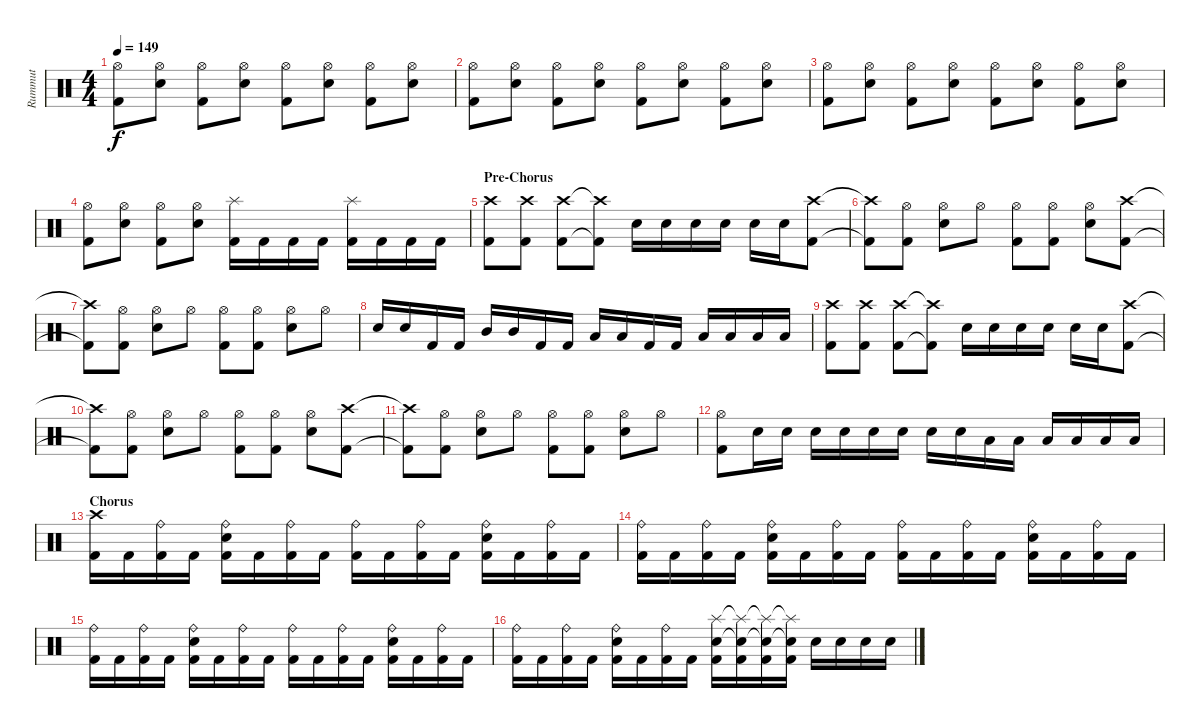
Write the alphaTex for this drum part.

\track ("Rummut" "Rummut") {instrument percussion}
\staff {score}
\articulation defaults
\ts (4 4)
\tempo 149
\clef neutral
\ks c
("Hi-Hat (open)" "Kick (hit) 2").8{dy f} ("Hi-Hat (open)" "Electric Snare (hit)").8 ("Hi-Hat (open)" "Kick (hit) 2").8 ("Hi-Hat (open)" "Electric Snare (hit)").8 ("Hi-Hat (open)" "Kick (hit) 2").8 ("Hi-Hat (open)" "Electric Snare (hit)").8 ("Hi-Hat (open)" "Kick (hit) 2").8 ("Hi-Hat (open)" "Electric Snare (hit)").8 |
("Hi-Hat (open)" "Kick (hit) 2").8 ("Hi-Hat (open)" "Electric Snare (hit)").8 ("Hi-Hat (open)" "Kick (hit) 2").8 ("Hi-Hat (open)" "Electric Snare (hit)").8 ("Hi-Hat (open)" "Kick (hit) 2").8 ("Hi-Hat (open)" "Electric Snare (hit)").8 ("Hi-Hat (open)" "Kick (hit) 2").8 ("Hi-Hat (open)" "Electric Snare (hit)").8 |
("Hi-Hat (open)" "Kick (hit) 2").8 ("Hi-Hat (open)" "Electric Snare (hit)").8 ("Hi-Hat (open)" "Kick (hit) 2").8 ("Hi-Hat (open)" "Electric Snare (hit)").8 ("Hi-Hat (open)" "Kick (hit) 2").8 ("Hi-Hat (open)" "Electric Snare (hit)").8 ("Hi-Hat (open)" "Kick (hit) 2").8 ("Hi-Hat (open)" "Electric Snare (hit)").8 |
("Hi-Hat (open)" "Kick (hit) 2").8 ("Hi-Hat (open)" "Electric Snare (hit)").8 ("Hi-Hat (open)" "Kick (hit) 2").8 ("Hi-Hat (open)" "Electric Snare (hit)").8 ("Splash (hit)" "Kick (hit) 2").16 "Kick (hit) 2".16 "Kick (hit) 2".16 "Kick (hit) 2".16 ("Splash (hit)" "Kick (hit) 2").16 "Kick (hit) 2".16 "Kick (hit) 2".16 "Kick (hit) 2".16 |
\section ("" "Pre-Chorus")
("Crash high (hit)" "Kick (hit) 2").8 ("Crash high (hit)" "Kick (hit) 2").8 ("Crash high (hit)" "Kick (hit) 2").8 ("Crash high (hit)"{t} "Kick (hit) 2"{t}).8 "Electric Snare (hit)".16 "Electric Snare (hit)".16 "Electric Snare (hit)".16 "Electric Snare (hit)".16 "Electric Snare (hit)".16 "Electric Snare (hit)".16 ("Crash high (hit)" "Kick (hit) 2").8 |
("Crash high (hit)"{t} "Kick (hit) 2"{t}).8 ("Hi-Hat (open)" "Kick (hit) 2").8 ("Hi-Hat (open)" "Electric Snare (hit)").8 "Hi-Hat (open)".8 ("Hi-Hat (open)" "Kick (hit) 2").8 ("Hi-Hat (open)" "Kick (hit) 2").8 ("Hi-Hat (open)" "Electric Snare (hit)").8 ("Crash high (hit)" "Kick (hit) 2").8 |
("Crash high (hit)"{t} "Kick (hit) 2"{t}).8 ("Hi-Hat (open)" "Kick (hit) 2").8 ("Hi-Hat (open)" "Electric Snare (hit)").8 "Hi-Hat (open)".8 ("Hi-Hat (open)" "Kick (hit) 2").8 ("Hi-Hat (open)" "Kick (hit) 2").8 ("Hi-Hat (open)" "Electric Snare (hit)").8 "Hi-Hat (open)".8 |
"Electric Snare (hit)".16 "Electric Snare (hit)".16 "Kick (hit) 2".16 "Kick (hit) 2".16 "Mid Tom (hit)".16 "Mid Tom (hit)".16 "Kick (hit) 2".16 "Kick (hit) 2".16 "Low Tom (hit)".16 "Low Tom (hit)".16 "Kick (hit) 2".16 "Kick (hit) 2".16 "Low Floor Tom (hit)".16 "Low Floor Tom (hit)".16 "Low Floor Tom (hit)".16 "Low Floor Tom (hit)".16 |
("Crash high (hit)" "Kick (hit) 2").8 ("Crash high (hit)" "Kick (hit) 2").8 ("Crash high (hit)" "Kick (hit) 2").8 ("Crash high (hit)"{t} "Kick (hit) 2"{t}).8 "Electric Snare (hit)".16 "Electric Snare (hit)".16 "Electric Snare (hit)".16 "Electric Snare (hit)".16 "Electric Snare (hit)".16 "Electric Snare (hit)".16 ("Crash high (hit)" "Kick (hit) 2").8 |
("Crash high (hit)"{t} "Kick (hit) 2"{t}).8 ("Hi-Hat (open)" "Kick (hit) 2").8 ("Hi-Hat (open)" "Electric Snare (hit)").8 "Hi-Hat (open)".8 ("Hi-Hat (open)" "Kick (hit) 2").8 ("Hi-Hat (open)" "Kick (hit) 2").8 ("Hi-Hat (open)" "Electric Snare (hit)").8 ("Crash high (hit)" "Kick (hit) 2").8 |
("Crash high (hit)"{t} "Kick (hit) 2"{t}).8 ("Hi-Hat (open)" "Kick (hit) 2").8 ("Hi-Hat (open)" "Electric Snare (hit)").8 "Hi-Hat (open)".8 ("Hi-Hat (open)" "Kick (hit) 2").8 ("Hi-Hat (open)" "Kick (hit) 2").8 ("Hi-Hat (open)" "Electric Snare (hit)").8 "Hi-Hat (open)".8 |
("Hi-Hat (open)" "Kick (hit) 2").8 "Electric Snare (hit)".16 "Electric Snare (hit)".16 "Electric Snare (hit)".16 "Electric Snare (hit)".16 "Electric Snare (hit)".16 "Electric Snare (hit)".16 "Electric Snare (hit)".16 "Electric Snare (hit)".16 "Low Tom (hit)".16 "Low Tom (hit)".16 "Low Floor Tom (hit)".16 "Low Floor Tom (hit)".16 "Low Floor Tom (hit)".16 "Low Floor Tom (hit)".16 |
\section ("" "Chorus")
("Crash high (hit)" "Kick (hit) 2").16 "Kick (hit) 2".16 ("Ride (bell)" "Kick (hit) 2").16 "Kick (hit) 2".16 ("Ride (bell)" "Electric Snare (hit)" "Kick (hit) 2").16 "Kick (hit) 2".16 ("Ride (bell)" "Kick (hit) 2").16 "Kick (hit) 2".16 ("Ride (bell)" "Kick (hit) 2").16 "Kick (hit) 2".16 ("Ride (bell)" "Kick (hit) 2").16 "Kick (hit) 2".16 ("Ride (bell)" "Electric Snare (hit)" "Kick (hit) 2").16 "Kick (hit) 2".16 ("Ride (bell)" "Kick (hit) 2").16 "Kick (hit) 2".16 |
("Ride (bell)" "Kick (hit) 2").16 "Kick (hit) 2".16 ("Ride (bell)" "Kick (hit) 2").16 "Kick (hit) 2".16 ("Ride (bell)" "Electric Snare (hit)" "Kick (hit) 2").16 "Kick (hit) 2".16 ("Ride (bell)" "Kick (hit) 2").16 "Kick (hit) 2".16 ("Ride (bell)" "Kick (hit) 2").16 "Kick (hit) 2".16 ("Ride (bell)" "Kick (hit) 2").16 "Kick (hit) 2".16 ("Ride (bell)" "Electric Snare (hit)" "Kick (hit) 2").16 "Kick (hit) 2".16 ("Ride (bell)" "Kick (hit) 2").16 "Kick (hit) 2".16 |
("Ride (bell)" "Kick (hit) 2").16 "Kick (hit) 2".16 ("Ride (bell)" "Kick (hit) 2").16 "Kick (hit) 2".16 ("Ride (bell)" "Electric Snare (hit)" "Kick (hit) 2").16 "Kick (hit) 2".16 ("Ride (bell)" "Kick (hit) 2").16 "Kick (hit) 2".16 ("Ride (bell)" "Kick (hit) 2").16 "Kick (hit) 2".16 ("Ride (bell)" "Kick (hit) 2").16 "Kick (hit) 2".16 ("Ride (bell)" "Electric Snare (hit)" "Kick (hit) 2").16 "Kick (hit) 2".16 ("Ride (bell)" "Kick (hit) 2").16 "Kick (hit) 2".16 |
("Ride (bell)" "Kick (hit) 2").16 "Kick (hit) 2".16 ("Ride (bell)" "Kick (hit) 2").16 "Kick (hit) 2".16 ("Ride (bell)" "Electric Snare (hit)" "Kick (hit) 2").16 "Kick (hit) 2".16 ("Ride (bell)" "Kick (hit) 2").16 "Kick (hit) 2".16 ("Splash (hit)" "Electric Snare (hit)" "Kick (hit) 2").16 ("Splash (hit)"{t} "Electric Snare (hit)"{t} "Kick (hit) 2").16 ("Splash (hit)"{t} "Electric Snare (hit)"{t} "Kick (hit) 2").16 ("Splash (hit)"{t} "Electric Snare (hit)"{t} "Kick (hit) 2").16 "Electric Snare (hit)".16 "Electric Snare (hit)".16 "Electric Snare (hit)".16 "Electric Snare (hit)".16
